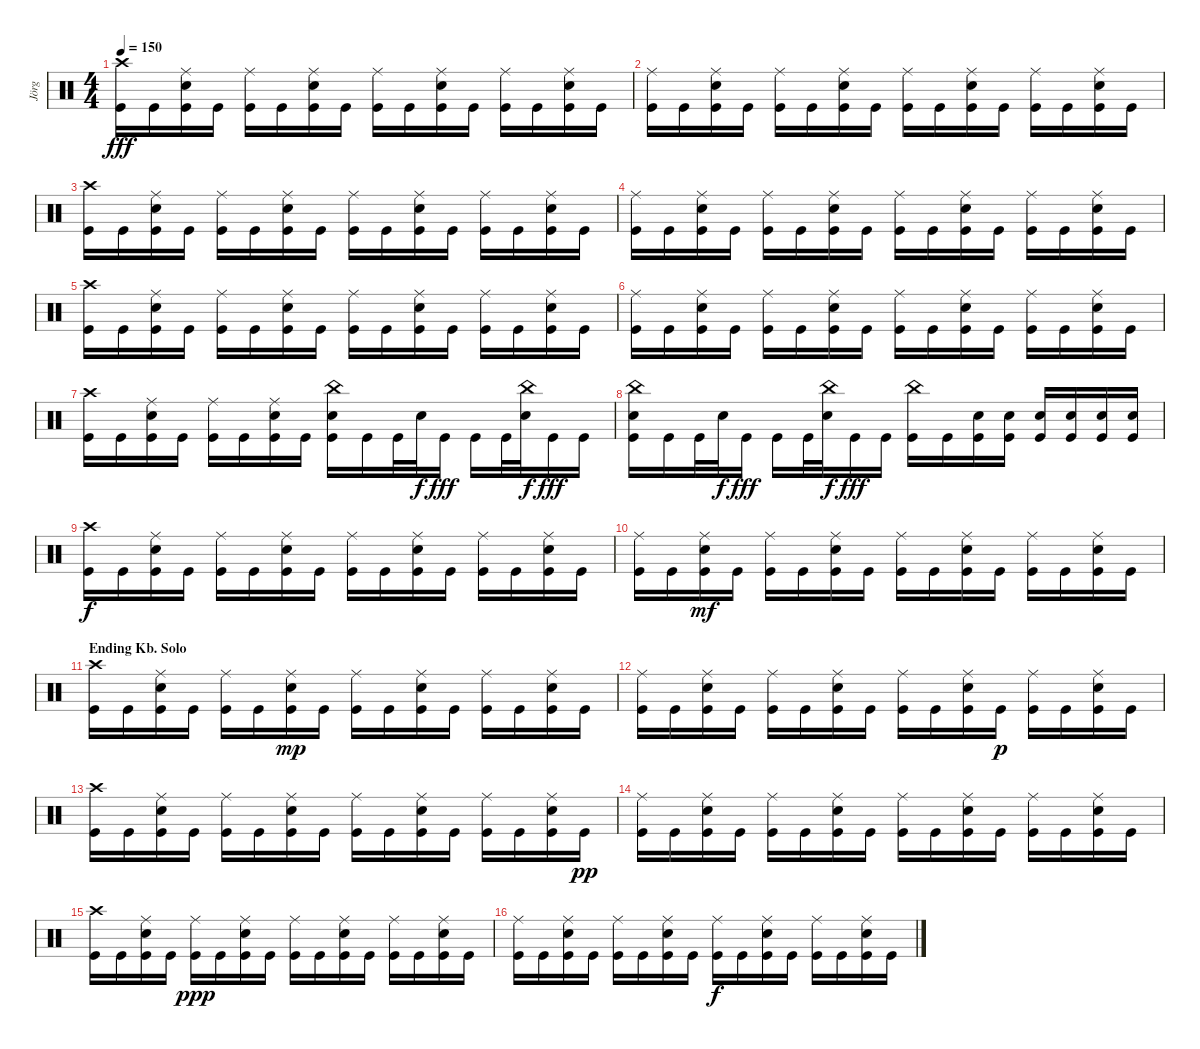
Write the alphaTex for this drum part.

\track ("Jörg" "Jörg") {instrument percussion}
\staff {score}
\articulation defaults
\ts (4 4)
\tempo 150
\clef neutral
\ks c
("Crash high (hit)" "Kick (hit)").16{dy fff} "Kick (hit)".16 ("Ride (middle)" "Snare (hit) 2" "Kick (hit)").16 "Kick (hit)".16 ("Ride (middle)" "Kick (hit)").16 "Kick (hit)".16 ("Ride (middle)" "Snare (hit) 2" "Kick (hit)").16 "Kick (hit)".16 ("Ride (middle)" "Kick (hit)").16 "Kick (hit)".16 ("Ride (middle)" "Snare (hit) 2" "Kick (hit)").16 "Kick (hit)".16 ("Ride (middle)" "Kick (hit)").16 "Kick (hit)".16 ("Ride (middle)" "Snare (hit) 2" "Kick (hit)").16 "Kick (hit)".16 |
("Ride (middle)" "Kick (hit)").16 "Kick (hit)".16 ("Ride (middle)" "Snare (hit) 2" "Kick (hit)").16 "Kick (hit)".16 ("Ride (middle)" "Kick (hit)").16 "Kick (hit)".16 ("Ride (middle)" "Snare (hit) 2" "Kick (hit)").16 "Kick (hit)".16 ("Ride (middle)" "Kick (hit)").16 "Kick (hit)".16 ("Ride (middle)" "Snare (hit) 2" "Kick (hit)").16 "Kick (hit)".16 ("Ride (middle)" "Kick (hit)").16 "Kick (hit)".16 ("Ride (middle)" "Snare (hit) 2" "Kick (hit)").16 "Kick (hit)".16 |
("Crash high (hit)" "Kick (hit)").16 "Kick (hit)".16 ("Ride (middle)" "Snare (hit) 2" "Kick (hit)").16 "Kick (hit)".16 ("Ride (middle)" "Kick (hit)").16 "Kick (hit)".16 ("Ride (middle)" "Snare (hit) 2" "Kick (hit)").16 "Kick (hit)".16 ("Ride (middle)" "Kick (hit)").16 "Kick (hit)".16 ("Ride (middle)" "Snare (hit) 2" "Kick (hit)").16 "Kick (hit)".16 ("Ride (middle)" "Kick (hit)").16 "Kick (hit)".16 ("Ride (middle)" "Snare (hit) 2" "Kick (hit)").16 "Kick (hit)".16 |
("Ride (middle)" "Kick (hit)").16 "Kick (hit)".16 ("Ride (middle)" "Snare (hit) 2" "Kick (hit)").16 "Kick (hit)".16 ("Ride (middle)" "Kick (hit)").16 "Kick (hit)".16 ("Ride (middle)" "Snare (hit) 2" "Kick (hit)").16 "Kick (hit)".16 ("Ride (middle)" "Kick (hit)").16 "Kick (hit)".16 ("Ride (middle)" "Snare (hit) 2" "Kick (hit)").16 "Kick (hit)".16 ("Ride (middle)" "Kick (hit)").16 "Kick (hit)".16 ("Ride (middle)" "Snare (hit) 2" "Kick (hit)").16 "Kick (hit)".16 |
("Crash high (hit)" "Kick (hit)").16 "Kick (hit)".16 ("Ride (middle)" "Snare (hit) 2" "Kick (hit)").16 "Kick (hit)".16 ("Ride (middle)" "Kick (hit)").16 "Kick (hit)".16 ("Ride (middle)" "Snare (hit) 2" "Kick (hit)").16 "Kick (hit)".16 ("Ride (middle)" "Kick (hit)").16 "Kick (hit)".16 ("Ride (middle)" "Snare (hit) 2" "Kick (hit)").16 "Kick (hit)".16 ("Ride (middle)" "Kick (hit)").16 "Kick (hit)".16 ("Ride (middle)" "Snare (hit) 2" "Kick (hit)").16 "Kick (hit)".16 |
("Ride (middle)" "Kick (hit)").16 "Kick (hit)".16 ("Ride (middle)" "Snare (hit) 2" "Kick (hit)").16 "Kick (hit)".16 ("Ride (middle)" "Kick (hit)").16 "Kick (hit)".16 ("Ride (middle)" "Snare (hit) 2" "Kick (hit)").16 "Kick (hit)".16 ("Ride (middle)" "Kick (hit)").16 "Kick (hit)".16 ("Ride (middle)" "Snare (hit) 2" "Kick (hit)").16 "Kick (hit)".16 ("Ride (middle)" "Kick (hit)").16 "Kick (hit)".16 ("Ride (middle)" "Snare (hit) 2" "Kick (hit)").16 "Kick (hit)".16 |
("Crash high (hit)" "Kick (hit)").16 "Kick (hit)".16 ("Ride (middle)" "Snare (hit) 2" "Kick (hit)").16 "Kick (hit)".16 ("Ride (middle)" "Kick (hit)").16 "Kick (hit)".16 ("Ride (middle)" "Snare (hit) 2" "Kick (hit)").16 "Kick (hit)".16 ("China (hit)" "Kick (hit)" "Snare (hit) 2").16 "Kick (hit)".16 "Kick (hit)".32 "Snare (hit) 2".32{dy f} "Kick (hit)".16{dy fff} "Kick (hit)".16 "Kick (hit)".32 ("Snare (hit) 2" "China (hit)").32{dy f} "Kick (hit)".16{dy fff} "Kick (hit)".16 |
("China (hit)" "Snare (hit) 2" "Kick (hit)").16 "Kick (hit)".16 "Kick (hit)".32 "Snare (hit) 2".32{dy f} "Kick (hit)".16{dy fff} "Kick (hit)".16 "Kick (hit)".32 ("China (hit)" "Snare (hit) 2").32{dy f} "Kick (hit)".16{dy fff} "Kick (hit)".16 ("China (hit)" "Kick (hit)").16 "Kick (hit)".16 ("Snare (hit) 2" "Kick (hit)").16 ("Snare (hit) 2" "Kick (hit)").16 ("Snare (hit) 2" "Kick (hit)").16 ("Snare (hit) 2" "Kick (hit)").16 ("Snare (hit) 2" "Kick (hit)").16 ("Snare (hit) 2" "Kick (hit)").16 |
("Crash high (hit)" "Kick (hit)").16{dy f} "Kick (hit)".16 ("Ride (middle)" "Snare (hit) 2" "Kick (hit)").16 "Kick (hit)".16 ("Ride (middle)" "Kick (hit)").16 "Kick (hit)".16 ("Ride (middle)" "Snare (hit) 2" "Kick (hit)").16 "Kick (hit)".16 ("Ride (middle)" "Kick (hit)").16 "Kick (hit)".16 ("Ride (middle)" "Snare (hit) 2" "Kick (hit)").16 "Kick (hit)".16 ("Ride (middle)" "Kick (hit)").16 "Kick (hit)".16 ("Ride (middle)" "Snare (hit) 2" "Kick (hit)").16 "Kick (hit)".16 |
("Ride (middle)" "Kick (hit)").16 "Kick (hit)".16 ("Ride (middle)" "Snare (hit) 2" "Kick (hit)").16{dy mf} "Kick (hit)".16 ("Ride (middle)" "Kick (hit)").16 "Kick (hit)".16 ("Ride (middle)" "Snare (hit) 2" "Kick (hit)").16 "Kick (hit)".16 ("Ride (middle)" "Kick (hit)").16 "Kick (hit)".16 ("Ride (middle)" "Snare (hit) 2" "Kick (hit)").16 "Kick (hit)".16 ("Ride (middle)" "Kick (hit)").16 "Kick (hit)".16 ("Ride (middle)" "Snare (hit) 2" "Kick (hit)").16 "Kick (hit)".16 |
\section ("" "Ending Kb. Solo")
("Crash high (hit)" "Kick (hit)").16 "Kick (hit)".16 ("Ride (middle)" "Snare (hit) 2" "Kick (hit)").16 "Kick (hit)".16 ("Ride (middle)" "Kick (hit)").16 "Kick (hit)".16 ("Ride (middle)" "Snare (hit) 2" "Kick (hit)").16{dy mp} "Kick (hit)".16 ("Ride (middle)" "Kick (hit)").16 "Kick (hit)".16 ("Ride (middle)" "Snare (hit) 2" "Kick (hit)").16 "Kick (hit)".16 ("Ride (middle)" "Kick (hit)").16 "Kick (hit)".16 ("Ride (middle)" "Snare (hit) 2" "Kick (hit)").16 "Kick (hit)".16 |
("Ride (middle)" "Kick (hit)").16 "Kick (hit)".16 ("Ride (middle)" "Snare (hit) 2" "Kick (hit)").16 "Kick (hit)".16 ("Ride (middle)" "Kick (hit)").16 "Kick (hit)".16 ("Ride (middle)" "Snare (hit) 2" "Kick (hit)").16 "Kick (hit)".16 ("Ride (middle)" "Kick (hit)").16 "Kick (hit)".16 ("Ride (middle)" "Snare (hit) 2" "Kick (hit)").16 "Kick (hit)".16{dy p} ("Ride (middle)" "Kick (hit)").16 "Kick (hit)".16 ("Ride (middle)" "Snare (hit) 2" "Kick (hit)").16 "Kick (hit)".16 |
("Crash high (hit)" "Kick (hit)").16 "Kick (hit)".16 ("Ride (middle)" "Snare (hit) 2" "Kick (hit)").16 "Kick (hit)".16 ("Ride (middle)" "Kick (hit)").16 "Kick (hit)".16 ("Ride (middle)" "Snare (hit) 2" "Kick (hit)").16 "Kick (hit)".16 ("Ride (middle)" "Kick (hit)").16 "Kick (hit)".16 ("Ride (middle)" "Snare (hit) 2" "Kick (hit)").16 "Kick (hit)".16 ("Ride (middle)" "Kick (hit)").16 "Kick (hit)".16 ("Ride (middle)" "Snare (hit) 2" "Kick (hit)").16 "Kick (hit)".16{dy pp} |
("Ride (middle)" "Kick (hit)").16 "Kick (hit)".16 ("Ride (middle)" "Snare (hit) 2" "Kick (hit)").16 "Kick (hit)".16 ("Ride (middle)" "Kick (hit)").16 "Kick (hit)".16 ("Ride (middle)" "Snare (hit) 2" "Kick (hit)").16 "Kick (hit)".16 ("Ride (middle)" "Kick (hit)").16 "Kick (hit)".16 ("Ride (middle)" "Snare (hit) 2" "Kick (hit)").16 "Kick (hit)".16 ("Ride (middle)" "Kick (hit)").16 "Kick (hit)".16 ("Ride (middle)" "Snare (hit) 2" "Kick (hit)").16 "Kick (hit)".16 |
("Crash high (hit)" "Kick (hit)").16 "Kick (hit)".16 ("Ride (middle)" "Snare (hit) 2" "Kick (hit)").16 "Kick (hit)".16 ("Ride (middle)" "Kick (hit)").16{dy ppp} "Kick (hit)".16 ("Ride (middle)" "Snare (hit) 2" "Kick (hit)").16 "Kick (hit)".16 ("Ride (middle)" "Kick (hit)").16 "Kick (hit)".16 ("Ride (middle)" "Snare (hit) 2" "Kick (hit)").16 "Kick (hit)".16 ("Ride (middle)" "Kick (hit)").16 "Kick (hit)".16 ("Ride (middle)" "Snare (hit) 2" "Kick (hit)").16 "Kick (hit)".16 |
("Ride (middle)" "Kick (hit)").16 "Kick (hit)".16 ("Ride (middle)" "Snare (hit) 2" "Kick (hit)").16 "Kick (hit)".16 ("Ride (middle)" "Kick (hit)").16 "Kick (hit)".16 ("Ride (middle)" "Snare (hit) 2" "Kick (hit)").16 "Kick (hit)".16 ("Ride (middle)" "Kick (hit)").16{dy f} "Kick (hit)".16 ("Ride (middle)" "Snare (hit) 2" "Kick (hit)").16 "Kick (hit)".16 ("Ride (middle)" "Kick (hit)").16 "Kick (hit)".16 ("Ride (middle)" "Snare (hit) 2" "Kick (hit)").16 "Kick (hit)".16
